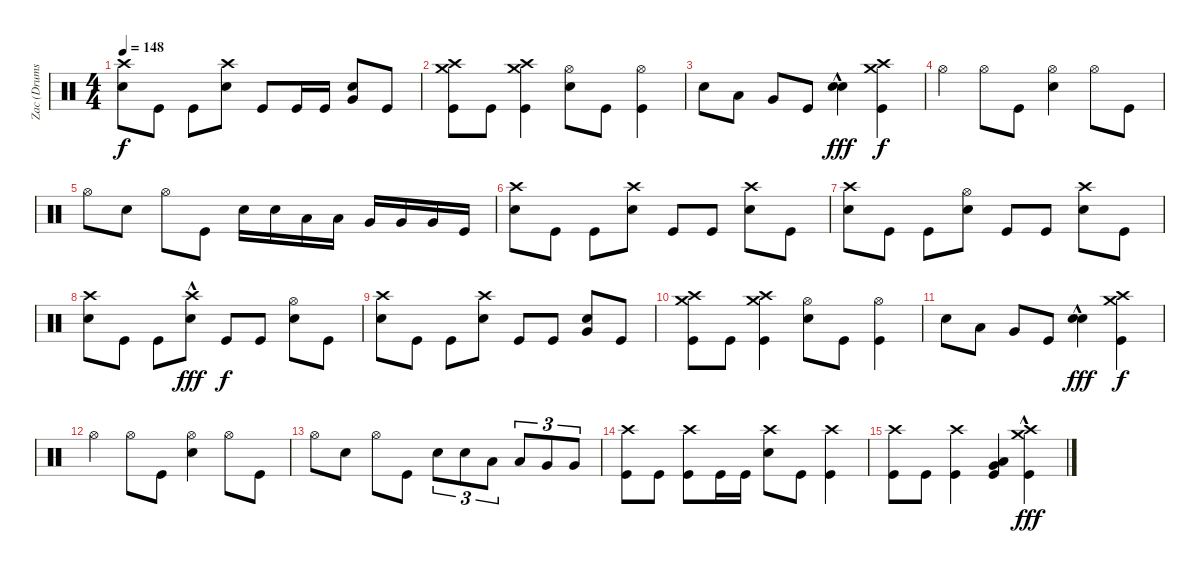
\track ("Zac (Drums)" "Zac (Drums") {instrument percussion}
\staff {score}
\articulation defaults
\ts (4 4)
\tempo 148
\clef neutral
\ks c
("Crash high (hit)" "Electric Snare (hit)").8{dy f} "Kick (hit)".8 "Kick (hit)".8 ("Crash high (hit)" "Electric Snare (hit)").8 "Kick (hit)".8 "Kick (hit)".16 "Kick (hit)".16 ("Electric Snare (hit)" "Very Low Tom (hit)").8 "Kick (hit)".8 |
("Crash high (hit)" "Crash medium (hit)" "Kick (hit)").8 "Kick (hit)".8 ("Crash high (hit)" "Crash medium (hit)" "Kick (hit)").4 ("Hi-Hat (open)" "Electric Snare (hit)").8 "Kick (hit)".8 ("Hi-Hat (open)" "Kick (hit)").4 |
"Electric Snare (hit)".8 "Low Tom (hit)".8 "Very Low Tom (hit)".8 "Kick (hit)".8 ("Electric Snare (hit)"{hac} "Electric Snare (hit)"{hac}).4{dy fff} ("Crash high (hit)" "Crash medium (hit)" "Kick (hit)").4{dy f} |
"Hi-Hat (open)".4 "Hi-Hat (open)".8 "Kick (hit)".8 ("Hi-Hat (open)" "Electric Snare (hit)").4 "Hi-Hat (open)".8 "Kick (hit)".8 |
"Hi-Hat (open)".8 "Electric Snare (hit)".8 "Hi-Hat (open)".8 "Kick (hit)".8 "Electric Snare (hit)".16 "Electric Snare (hit)".16 "Low Tom (hit)".16 "Low Tom (hit)".16 "Very Low Tom (hit)".16 "Very Low Tom (hit)".16 "Very Low Tom (hit)".16 "Kick (hit)".16 |
("Crash high (hit)" "Electric Snare (hit)").8 "Kick (hit)".8 "Kick (hit)".8 ("Crash high (hit)" "Electric Snare (hit)").8 "Kick (hit)".8 "Kick (hit)".8 ("Crash high (hit)" "Electric Snare (hit)").8 "Kick (hit)".8 |
("Crash high (hit)" "Electric Snare (hit)").8 "Kick (hit)".8 "Kick (hit)".8 ("Hi-Hat (open)" "Electric Snare (hit)").8 "Kick (hit)".8 "Kick (hit)".8 ("Crash high (hit)" "Electric Snare (hit)").8 "Kick (hit)".8 |
("Crash high (hit)" "Electric Snare (hit)").8 "Kick (hit)".8 "Kick (hit)".8 ("Crash high (hit)"{hac} "Electric Snare (hit)").8{dy fff} "Kick (hit)".8{dy f} "Kick (hit)".8 ("Hi-Hat (open)" "Electric Snare (hit)").8 "Kick (hit)".8 |
("Crash high (hit)" "Electric Snare (hit)").8 "Kick (hit)".8 "Kick (hit)".8 ("Crash high (hit)" "Electric Snare (hit)").8 "Kick (hit)".8 "Kick (hit)".8 ("Electric Snare (hit)" "Very Low Tom (hit)").8 "Kick (hit)".8 |
("Crash high (hit)" "Crash medium (hit)" "Kick (hit)").8 "Kick (hit)".8 ("Crash high (hit)" "Crash medium (hit)" "Kick (hit)").4 ("Hi-Hat (open)" "Electric Snare (hit)").8 "Kick (hit)".8 ("Hi-Hat (open)" "Kick (hit)").4 |
"Electric Snare (hit)".8 "Low Tom (hit)".8 "Very Low Tom (hit)".8 "Kick (hit)".8 ("Electric Snare (hit)"{hac} "Electric Snare (hit)"{hac}).4{dy fff} ("Crash high (hit)" "Crash medium (hit)" "Kick (hit)").4{dy f} |
"Hi-Hat (open)".4 "Hi-Hat (open)".8 "Kick (hit)".8 ("Hi-Hat (open)" "Electric Snare (hit)").4 "Hi-Hat (open)".8 "Kick (hit)".8 |
"Hi-Hat (open)".8 "Electric Snare (hit)".8 "Hi-Hat (open)".8 "Kick (hit)".8 "Electric Snare (hit)".8{tu (3 2)} "Electric Snare (hit)".8{tu (3 2)} "Low Tom (hit)".8{tu (3 2)} "Low Tom (hit)".8{tu (3 2)} "Very Low Tom (hit)".8{tu (3 2)} "Very Low Tom (hit)".8{tu (3 2)} |
("Crash high (hit)" "Kick (hit)").8 "Kick (hit)".8 ("Crash high (hit)" "Kick (hit)").8 "Kick (hit)".16 "Kick (hit)".16 ("Crash high (hit)" "Electric Snare (hit)").8 "Kick (hit)".8 ("Crash high (hit)" "Kick (hit)").4 |
("Crash high (hit)" "Kick (hit)").8 "Kick (hit)".8 ("Crash high (hit)" "Kick (hit)").4 ("Low Tom (hit)" "Very Low Tom (hit)" "Kick (hit)").4 ("Crash high (hit)"{hac} "Crash medium (hit)" "Kick (hit)").4{dy fff}
